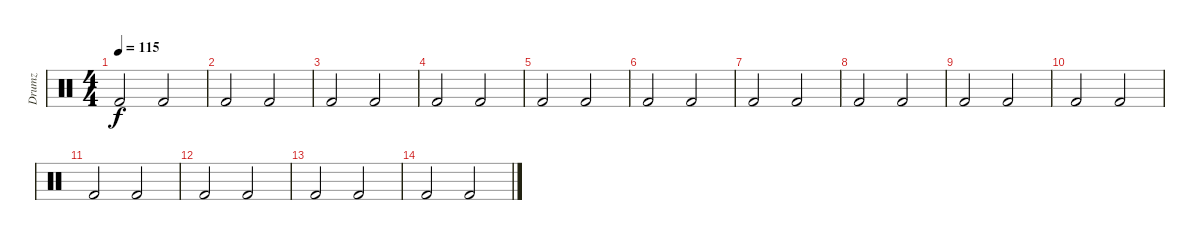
\track ("Drumz" "Drumz") {instrument percussion}
\staff {score}
\articulation defaults
\ts (4 4)
\tempo 115
\clef neutral
\ks c "Kick (hit) 2".2{dy f} "Kick (hit) 2".2
|
"Kick (hit) 2".2 "Kick (hit) 2".2 |
"Kick (hit) 2".2 "Kick (hit) 2".2 |
"Kick (hit) 2".2 "Kick (hit) 2".2 |
"Kick (hit) 2".2 "Kick (hit) 2".2 |
"Kick (hit) 2".2 "Kick (hit) 2".2 |
"Kick (hit) 2".2 "Kick (hit) 2".2 |
"Kick (hit) 2".2 "Kick (hit) 2".2 |
"Kick (hit) 2".2 "Kick (hit) 2".2 |
"Kick (hit) 2".2 "Kick (hit) 2".2 |
"Kick (hit) 2".2 "Kick (hit) 2".2 |
"Kick (hit) 2".2 "Kick (hit) 2".2 |
"Kick (hit) 2".2 "Kick (hit) 2".2 |
"Kick (hit) 2".2 "Kick (hit) 2".2
